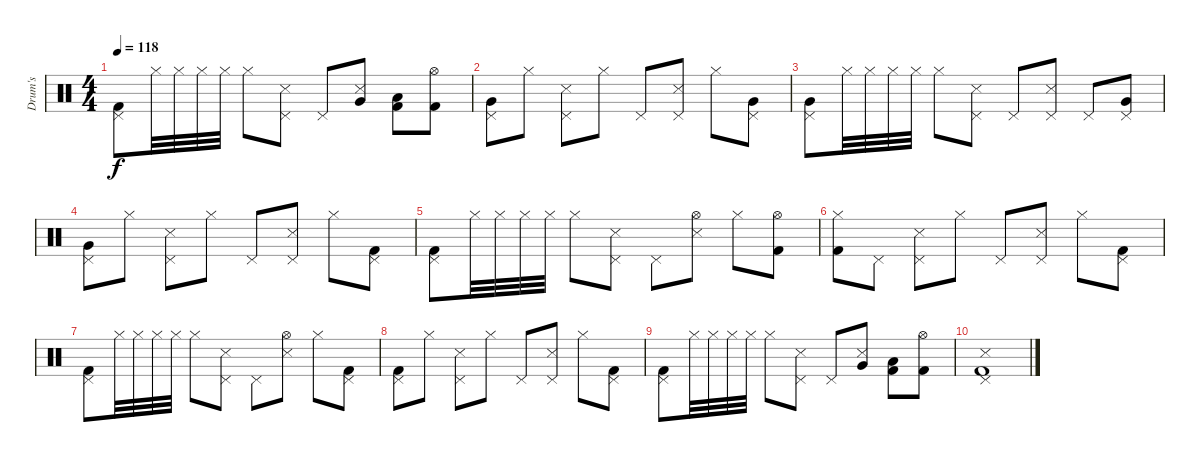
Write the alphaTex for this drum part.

\track ("Drum's" "Drum's") {instrument percussion}
\staff {score}
\articulation defaults
\ts (4 4)
\tempo 118
\clef neutral
\ks c
("Pedal Hi-Hat (hit)" "Kick (hit) 2").8{dy f} "Hi-Hat (closed)".32 "Hi-Hat (closed)".32 "Hi-Hat (closed)".32 "Hi-Hat (closed)".32 "Hi-Hat (closed)".8 ("Pedal Hi-Hat (hit)" "Snare (side stick) 3").8 "Pedal Hi-Hat (hit)".8 ("Snare (side stick) 3" "Very Low Tom (hit)").8 ("Kick (hit) 2" "Low Tom (hit)").8 ("Hi-Hat (open)" "Kick (hit) 2").8 |
("Pedal Hi-Hat (hit)" "Very Low Tom (hit)").8 "Hi-Hat (closed)".8 ("Pedal Hi-Hat (hit)" "Snare (side stick) 3").8 "Hi-Hat (closed)".8 "Pedal Hi-Hat (hit)".8 ("Pedal Hi-Hat (hit)" "Snare (side stick) 3").8 "Hi-Hat (closed)".8 ("Pedal Hi-Hat (hit)" "Very Low Tom (hit)").8 |
("Pedal Hi-Hat (hit)" "Very Low Tom (hit)").8 "Hi-Hat (closed)".32 "Hi-Hat (closed)".32 "Hi-Hat (closed)".32 "Hi-Hat (closed)".32 "Hi-Hat (closed)".8 ("Pedal Hi-Hat (hit)" "Snare (side stick) 3").8 "Pedal Hi-Hat (hit)".8 ("Pedal Hi-Hat (hit)" "Snare (side stick) 3").8 "Pedal Hi-Hat (hit)".8 ("Pedal Hi-Hat (hit)" "Very Low Tom (hit)").8 |
("Pedal Hi-Hat (hit)" "Very Low Tom (hit)").8 "Hi-Hat (closed)".8 ("Pedal Hi-Hat (hit)" "Snare (side stick) 3").8 "Hi-Hat (closed)".8 "Pedal Hi-Hat (hit)".8 ("Pedal Hi-Hat (hit)" "Snare (side stick) 3").8 "Hi-Hat (closed)".8 ("Pedal Hi-Hat (hit)" "Kick (hit) 2").8 |
("Pedal Hi-Hat (hit)" "Kick (hit) 2").8 "Hi-Hat (closed)".32 "Hi-Hat (closed)".32 "Hi-Hat (closed)".32 "Hi-Hat (closed)".32 "Hi-Hat (closed)".8 ("Pedal Hi-Hat (hit)" "Snare (side stick) 3").8 "Pedal Hi-Hat (hit)".8 ("Hi-Hat (open)" "Snare (side stick) 3").8 "Hi-Hat (closed)".8 ("Hi-Hat (open)" "Kick (hit) 2").8 |
("Hi-Hat (closed)" "Kick (hit) 2").8 "Pedal Hi-Hat (hit)".8 ("Pedal Hi-Hat (hit)" "Snare (side stick) 3").8 "Hi-Hat (closed)".8 "Pedal Hi-Hat (hit)".8 ("Pedal Hi-Hat (hit)" "Snare (side stick) 3").8 "Hi-Hat (closed)".8 ("Pedal Hi-Hat (hit)" "Kick (hit) 2").8 |
("Pedal Hi-Hat (hit)" "Kick (hit) 2").8 "Hi-Hat (closed)".32 "Hi-Hat (closed)".32 "Hi-Hat (closed)".32 "Hi-Hat (closed)".32 "Hi-Hat (closed)".8 ("Pedal Hi-Hat (hit)" "Snare (side stick) 3").8 "Pedal Hi-Hat (hit)".8 ("Hi-Hat (open)" "Snare (side stick) 3").8 "Hi-Hat (closed)".8 ("Pedal Hi-Hat (hit)" "Kick (hit) 2").8 |
("Pedal Hi-Hat (hit)" "Kick (hit) 2").8 "Hi-Hat (closed)".8 ("Pedal Hi-Hat (hit)" "Snare (side stick) 3").8 "Hi-Hat (closed)".8 "Pedal Hi-Hat (hit)".8 ("Pedal Hi-Hat (hit)" "Snare (side stick) 3").8 "Hi-Hat (closed)".8 ("Pedal Hi-Hat (hit)" "Kick (hit) 2").8 |
("Pedal Hi-Hat (hit)" "Kick (hit) 2").8 "Hi-Hat (closed)".32 "Hi-Hat (closed)".32 "Hi-Hat (closed)".32 "Hi-Hat (closed)".32 "Hi-Hat (closed)".8 ("Pedal Hi-Hat (hit)" "Snare (side stick) 3").8 "Pedal Hi-Hat (hit)".8 ("Snare (side stick) 3" "Very Low Tom (hit)").8 ("Kick (hit) 2" "Low Tom (hit)").8 ("Hi-Hat (open)" "Kick (hit) 2").8 |
("Pedal Hi-Hat (hit)" "Kick (hit) 2" "Snare (side stick) 3").1
